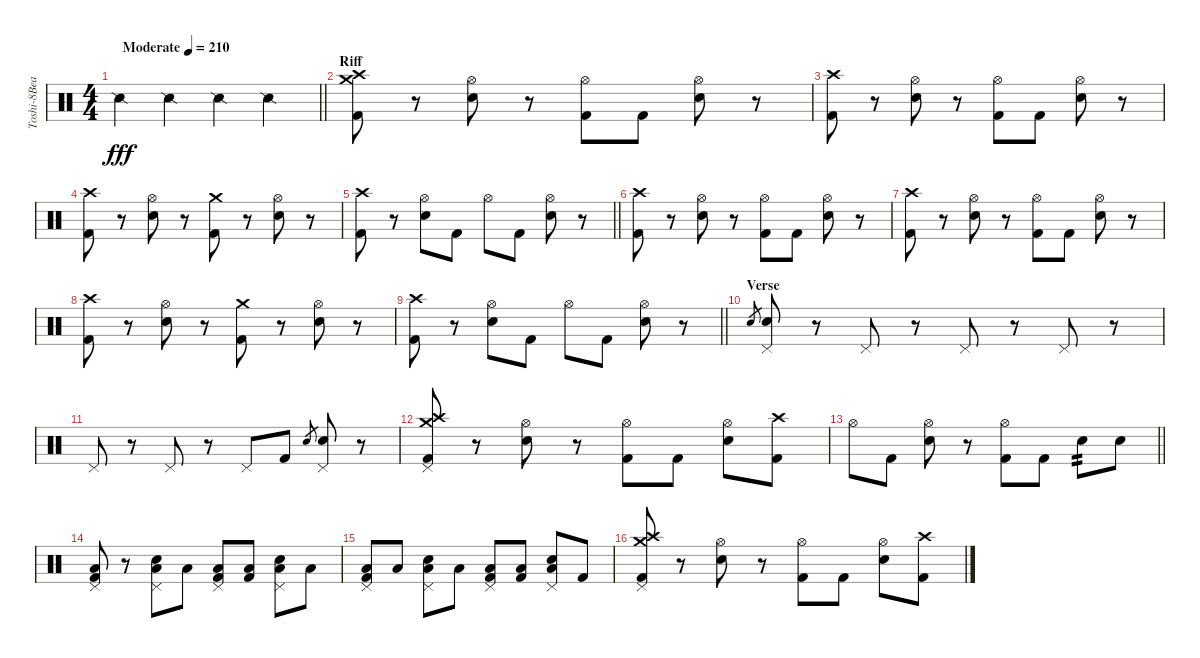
\track ("Toshi-8Beat" "Toshi-8Bea") {instrument percussion}
\staff {score}
\articulation defaults
\ts (4 4)
\tempo (210 "Moderate")
\clef neutral
\barLineRight lightlight
\ks c "Snare (side stick) 2".4{dy fff} "Snare (side stick) 2".4 "Snare (side stick) 2".4 "Snare (side stick) 2".4
|
\section ("" "Riff")
("Kick (hit) 2" "Crash high (hit)" "Crash medium (hit)").8 r.8 ("Hi-Hat (open)" "Snare (hit) 2").8 r.8 ("Hi-Hat (open)" "Kick (hit) 2").8 "Kick (hit) 2".8 ("Hi-Hat (open)" "Snare (hit) 2").8 r.8 |
("Kick (hit) 2" "Crash high (hit)").8 r.8 ("Hi-Hat (open)" "Snare (hit) 2").8 r.8 ("Hi-Hat (open)" "Kick (hit) 2").8 "Kick (hit) 2".8 ("Hi-Hat (open)" "Snare (hit) 2").8 r.8 |
("Kick (hit) 2" "Crash high (hit)").8 r.8 ("Hi-Hat (open)" "Snare (hit) 2").8 r.8 ("Kick (hit) 2" "Crash medium (hit)").8 r.8 ("Hi-Hat (open)" "Snare (hit) 2").8 r.8 |
\barLineRight lightlight
("Kick (hit) 2" "Crash high (hit)").8 r.8 ("Hi-Hat (open)" "Snare (hit) 2").8 "Kick (hit) 2".8 "Hi-Hat (open)".8 "Kick (hit) 2".8 ("Hi-Hat (open)" "Snare (hit) 2").8 r.8 |
("Kick (hit) 2" "Crash high (hit)").8 r.8 ("Hi-Hat (open)" "Snare (hit) 2").8 r.8 ("Hi-Hat (open)" "Kick (hit) 2").8 "Kick (hit) 2".8 ("Hi-Hat (open)" "Snare (hit) 2").8 r.8 |
("Kick (hit) 2" "Crash high (hit)").8 r.8 ("Hi-Hat (open)" "Snare (hit) 2").8 r.8 ("Hi-Hat (open)" "Kick (hit) 2").8 "Kick (hit) 2".8 ("Hi-Hat (open)" "Snare (hit) 2").8 r.8 |
("Kick (hit) 2" "Crash high (hit)").8 r.8 ("Hi-Hat (open)" "Snare (hit) 2").8 r.8 ("Kick (hit) 2" "Crash medium (hit)").8 r.8 ("Hi-Hat (open)" "Snare (hit) 2").8 r.8 |
\barLineRight lightlight
("Kick (hit) 2" "Crash high (hit)").8 r.8 ("Hi-Hat (open)" "Snare (hit) 2").8 "Kick (hit) 2".8 "Hi-Hat (open)".8 "Kick (hit) 2".8 ("Hi-Hat (open)" "Snare (hit) 2").8 r.8 |
\section ("" "Verse")
"Snare (hit) 2".8{gr} ("Pedal Hi-Hat (hit)" "Snare (hit) 2").8 r.8 "Pedal Hi-Hat (hit)".8 r.8 "Pedal Hi-Hat (hit)".8 r.8 "Pedal Hi-Hat (hit)".8 r.8 |
"Pedal Hi-Hat (hit)".8 r.8 "Pedal Hi-Hat (hit)".8 r.8 "Pedal Hi-Hat (hit)".8 "Kick (hit) 2".8 "Snare (hit) 2".8{gr} ("Pedal Hi-Hat (hit)" "Snare (hit) 2").8 r.8 |
("Pedal Hi-Hat (hit)" "Kick (hit) 2" "Crash medium (hit)" "Crash high (hit)").8 r.8 ("Hi-Hat (open)" "Snare (hit) 2").8 r.8 ("Hi-Hat (open)" "Kick (hit) 2").8 "Kick (hit) 2".8 ("Hi-Hat (open)" "Snare (hit) 2").8 ("Kick (hit) 2" "Crash high (hit)").8 |
\barLineRight lightlight "Hi-Hat (open)".8 "Kick (hit) 2".8
("Hi-Hat (open)" "Snare (hit) 2").8 r.8 ("Hi-Hat (open)" "Kick (hit) 2").8 "Kick (hit) 2".8 "Snare (hit) 2".8{tp 2} "Snare (hit) 2".8 |
("Pedal Hi-Hat (hit)" "Kick (hit) 2" "Low Floor Tom (hit)").8 r.8 ("Pedal Hi-Hat (hit)" "Snare (hit) 2" "Low Floor Tom (hit)").8 "Low Floor Tom (hit)".8 ("Pedal Hi-Hat (hit)" "Kick (hit) 2" "Low Floor Tom (hit)").8 ("Kick (hit) 2" "Low Floor Tom (hit)").8 ("Pedal Hi-Hat (hit)" "Snare (hit) 2" "Low Floor Tom (hit)").8 "Low Floor Tom (hit)".8 |
("Pedal Hi-Hat (hit)" "Kick (hit) 2" "Low Floor Tom (hit)").8 "Low Floor Tom (hit)".8 ("Pedal Hi-Hat (hit)" "Snare (hit) 2" "Low Floor Tom (hit)").8 "Low Floor Tom (hit)".8 ("Pedal Hi-Hat (hit)" "Kick (hit) 2" "Low Floor Tom (hit)").8 ("Kick (hit) 2" "Low Floor Tom (hit)").8 ("Pedal Hi-Hat (hit)" "Snare (hit) 2" "Low Floor Tom (hit)").8 "Kick (hit) 2".8 |
("Pedal Hi-Hat (hit)" "Kick (hit) 2" "Crash medium (hit)" "Crash high (hit)").8 r.8 ("Hi-Hat (open)" "Snare (hit) 2").8 r.8 ("Hi-Hat (open)" "Kick (hit) 2").8 "Kick (hit) 2".8 ("Hi-Hat (open)" "Snare (hit) 2").8 ("Kick (hit) 2" "Crash high (hit)").8
